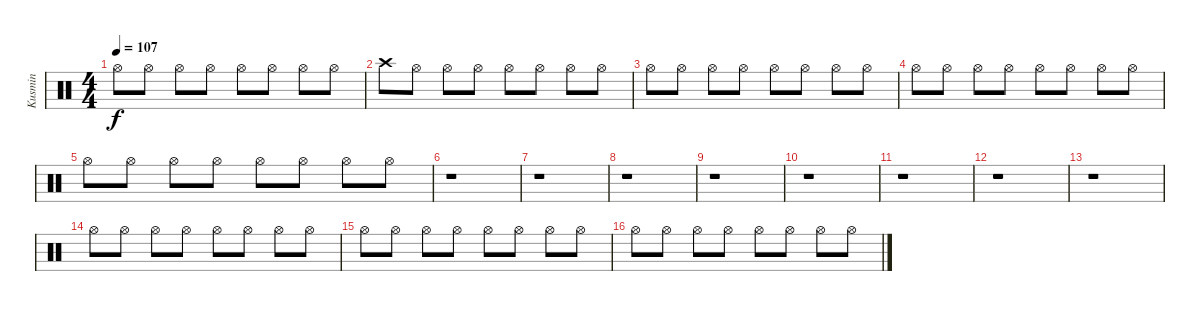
\track ("Kusmin" "Kusmin") {instrument percussion}
\staff {score}
\articulation defaults
\ts (4 4)
\tempo 107
\clef neutral
\ks c "Hi-Hat (open)".8{dy f} "Hi-Hat (open)".8 "Hi-Hat (open)".8 "Hi-Hat (open)".8 "Hi-Hat (open)".8 "Hi-Hat (open)".8 "Hi-Hat (open)".8 "Hi-Hat (open)".8
|
"Crash high (hit)".8 "Hi-Hat (open)".8 "Hi-Hat (open)".8 "Hi-Hat (open)".8 "Hi-Hat (open)".8 "Hi-Hat (open)".8 "Hi-Hat (open)".8 "Hi-Hat (open)".8 |
"Hi-Hat (open)".8 "Hi-Hat (open)".8 "Hi-Hat (open)".8 "Hi-Hat (open)".8 "Hi-Hat (open)".8 "Hi-Hat (open)".8 "Hi-Hat (open)".8 "Hi-Hat (open)".8 |
"Hi-Hat (open)".8 "Hi-Hat (open)".8 "Hi-Hat (open)".8 "Hi-Hat (open)".8 "Hi-Hat (open)".8 "Hi-Hat (open)".8 "Hi-Hat (open)".8 "Hi-Hat (open)".8 |
"Hi-Hat (open)".8 "Hi-Hat (open)".8 "Hi-Hat (open)".8 "Hi-Hat (open)".8 "Hi-Hat (open)".8 "Hi-Hat (open)".8 "Hi-Hat (open)".8 "Hi-Hat (open)".8 |
r.1 |
r.1 |
r.1 |
r.1 |
r.1 |
r.1 |
r.1 |
r.1 |
"Hi-Hat (open)".8 "Hi-Hat (open)".8 "Hi-Hat (open)".8 "Hi-Hat (open)".8 "Hi-Hat (open)".8 "Hi-Hat (open)".8 "Hi-Hat (open)".8 "Hi-Hat (open)".8 |
"Hi-Hat (open)".8 "Hi-Hat (open)".8 "Hi-Hat (open)".8 "Hi-Hat (open)".8 "Hi-Hat (open)".8 "Hi-Hat (open)".8 "Hi-Hat (open)".8 "Hi-Hat (open)".8 |
"Hi-Hat (open)".8 "Hi-Hat (open)".8 "Hi-Hat (open)".8 "Hi-Hat (open)".8 "Hi-Hat (open)".8 "Hi-Hat (open)".8 "Hi-Hat (open)".8 "Hi-Hat (open)".8
